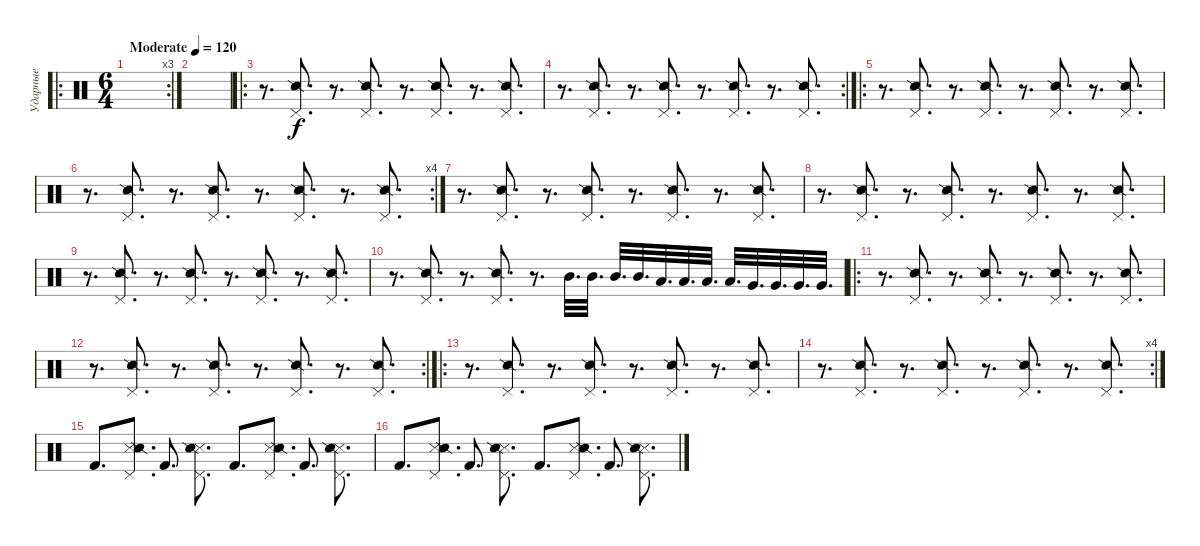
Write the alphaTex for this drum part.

\track ("Ударные" "Ударные") {instrument percussion}
\staff {score}
\articulation defaults
\ro
\rc 3
\ts (6 4)
\tempo (120 "Moderate")
\clef neutral
\ks c
|
|
\ro
r.8{d} ("Snare (side stick) 2" "Pedal Hi-Hat (hit)").8{d} r.8{d} ("Snare (side stick) 2" "Pedal Hi-Hat (hit)").8{d} r.8{d} ("Snare (side stick) 2" "Pedal Hi-Hat (hit)").8{d} r.8{d} ("Snare (side stick) 2" "Pedal Hi-Hat (hit)").8{d} |
\rc 2
r.8{d} ("Snare (side stick) 2" "Pedal Hi-Hat (hit)").8{d} r.8{d} ("Snare (side stick) 2" "Pedal Hi-Hat (hit)").8{d} r.8{d} ("Snare (side stick) 2" "Pedal Hi-Hat (hit)").8{d} r.8{d} ("Snare (side stick) 2" "Pedal Hi-Hat (hit)").8{d} |
\ro
r.8{d} ("Snare (side stick) 2" "Pedal Hi-Hat (hit)").8{d} r.8{d} ("Snare (side stick) 2" "Pedal Hi-Hat (hit)").8{d} r.8{d} ("Snare (side stick) 2" "Pedal Hi-Hat (hit)").8{d} r.8{d} ("Snare (side stick) 2" "Pedal Hi-Hat (hit)").8{d} |
\rc 4
r.8{d} ("Snare (side stick) 2" "Pedal Hi-Hat (hit)").8{d} r.8{d} ("Snare (side stick) 2" "Pedal Hi-Hat (hit)").8{d} r.8{d} ("Snare (side stick) 2" "Pedal Hi-Hat (hit)").8{d} r.8{d} ("Snare (side stick) 2" "Pedal Hi-Hat (hit)").8{d} |
r.8{d} ("Snare (side stick) 2" "Pedal Hi-Hat (hit)").8{d} r.8{d} ("Snare (side stick) 2" "Pedal Hi-Hat (hit)").8{d} r.8{d} ("Snare (side stick) 2" "Pedal Hi-Hat (hit)").8{d} r.8{d} ("Snare (side stick) 2" "Pedal Hi-Hat (hit)").8{d} |
r.8{d} ("Snare (side stick) 2" "Pedal Hi-Hat (hit)").8{d} r.8{d} ("Snare (side stick) 2" "Pedal Hi-Hat (hit)").8{d} r.8{d} ("Snare (side stick) 2" "Pedal Hi-Hat (hit)").8{d} r.8{d} ("Snare (side stick) 2" "Pedal Hi-Hat (hit)").8{d} |
r.8{d} ("Snare (side stick) 2" "Pedal Hi-Hat (hit)").8{d} r.8{d} ("Snare (side stick) 2" "Pedal Hi-Hat (hit)").8{d} r.8{d} ("Snare (side stick) 2" "Pedal Hi-Hat (hit)").8{d} r.8{d} ("Snare (side stick) 2" "Pedal Hi-Hat (hit)").8{d} |
r.8{d} ("Snare (side stick) 2" "Pedal Hi-Hat (hit)").8{d} r.8{d} ("Snare (side stick) 2" "Pedal Hi-Hat (hit)").8{d} r.8{d} "Mid Tom (hit)".32{d} "Mid Tom (hit)".32{d} "Mid Tom (hit)".32{d} "Mid Tom (hit)".32{d} "Low Tom (hit)".32{d} "Low Tom (hit)".32{d} "Low Tom (hit)".32{d} "Low Tom (hit)".32{d} "Very Low Tom (hit)".32{d} "Very Low Tom (hit)".32{d} "Very Low Tom (hit)".32{d} "Very Low Tom (hit)".32{d} |
\ro
r.8{d} ("Snare (side stick) 2" "Pedal Hi-Hat (hit)").8{d} r.8{d} ("Snare (side stick) 2" "Pedal Hi-Hat (hit)").8{d} r.8{d} ("Snare (side stick) 2" "Pedal Hi-Hat (hit)").8{d} r.8{d} ("Snare (side stick) 2" "Pedal Hi-Hat (hit)").8{d} |
\rc 2
r.8{d} ("Snare (side stick) 2" "Pedal Hi-Hat (hit)").8{d} r.8{d} ("Snare (side stick) 2" "Pedal Hi-Hat (hit)").8{d} r.8{d} ("Snare (side stick) 2" "Pedal Hi-Hat (hit)").8{d} r.8{d} ("Snare (side stick) 2" "Pedal Hi-Hat (hit)").8{d} |
\ro
r.8{d} ("Snare (side stick) 2" "Pedal Hi-Hat (hit)").8{d} r.8{d} ("Snare (side stick) 2" "Pedal Hi-Hat (hit)").8{d} r.8{d} ("Snare (side stick) 2" "Pedal Hi-Hat (hit)").8{d} r.8{d} ("Snare (side stick) 2" "Pedal Hi-Hat (hit)").8{d} |
\rc 4
r.8{d} ("Snare (side stick) 2" "Pedal Hi-Hat (hit)").8{d} r.8{d} ("Snare (side stick) 2" "Pedal Hi-Hat (hit)").8{d} r.8{d} ("Snare (side stick) 2" "Pedal Hi-Hat (hit)").8{d} r.8{d} ("Snare (side stick) 2" "Pedal Hi-Hat (hit)").8{d} |
"Kick (hit) 2".8{d} ("Metronome (hit)" "Snare (side stick) 2" "Pedal Hi-Hat (hit)").8{d} "Kick (hit) 2".8{d} ("Metronome (hit)" "Snare (side stick) 2" "Pedal Hi-Hat (hit)").8{d} "Kick (hit) 2".8{d} ("Metronome (hit)" "Snare (side stick) 2" "Pedal Hi-Hat (hit)").8{d} "Kick (hit) 2".8{d} ("Metronome (hit)" "Snare (side stick) 2" "Pedal Hi-Hat (hit)").8{d} |
"Kick (hit) 2".8{d} ("Metronome (hit)" "Snare (side stick) 2" "Pedal Hi-Hat (hit)").8{d} "Kick (hit) 2".8{d} ("Metronome (hit)" "Snare (side stick) 2" "Pedal Hi-Hat (hit)").8{d} "Kick (hit) 2".8{d} ("Metronome (hit)" "Snare (side stick) 2" "Pedal Hi-Hat (hit)").8{d} "Kick (hit) 2".8{d} ("Metronome (hit)" "Snare (side stick) 2" "Pedal Hi-Hat (hit)").8{d}
